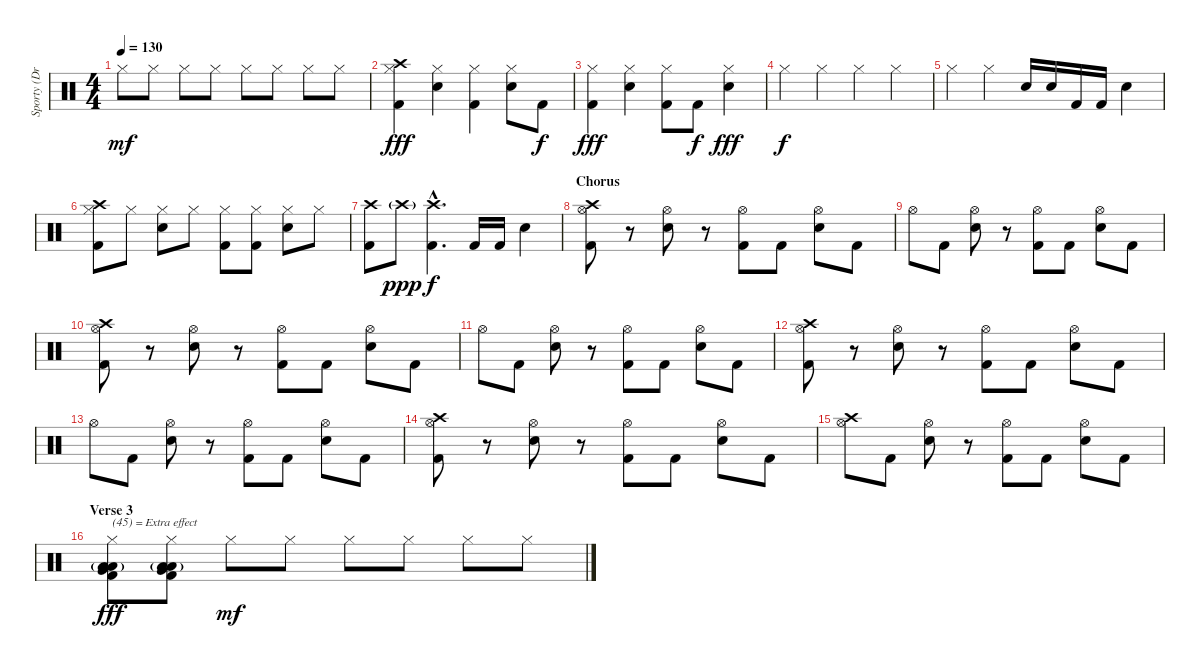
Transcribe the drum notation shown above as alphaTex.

\track ("Sporty (Drums)" "Sporty (Dr") {instrument percussion}
\staff {score}
\articulation defaults
\ts (4 4)
\tempo 130
\clef neutral
\ks c "Hi-Hat (closed)".8{dy mf} "Hi-Hat (closed)".8 "Hi-Hat (closed)".8 "Hi-Hat (closed)".8 "Hi-Hat (closed)".8 "Hi-Hat (closed)".8 "Hi-Hat (closed)".8 "Hi-Hat (closed)".8
|
("Crash high (hit)" "Hi-Hat (closed)" "Kick (hit) 2").4{dy fff} ("Hi-Hat (closed)" "Snare (hit) 2").4 ("Hi-Hat (closed)" "Kick (hit) 2").4 ("Hi-Hat (closed)" "Snare (hit) 2").8 "Kick (hit) 2".8{dy f} |
("Hi-Hat (closed)" "Kick (hit) 2").4{dy fff} ("Hi-Hat (closed)" "Snare (hit) 2").4 ("Hi-Hat (closed)" "Kick (hit) 2").8 "Kick (hit) 2".8{dy f} ("Hi-Hat (closed)" "Snare (hit) 2").4{dy fff} |
"Hi-Hat (closed)".4{dy f} "Hi-Hat (closed)".4 "Hi-Hat (closed)".4 "Hi-Hat (closed)".4 |
"Hi-Hat (closed)".4 "Hi-Hat (closed)".4 "Snare (hit) 2".16 "Snare (hit) 2".16 "Kick (hit) 2".16 "Kick (hit) 2".16 "Snare (hit) 2".4 |
("Crash high (hit)" "Hi-Hat (closed)" "Kick (hit) 2").8 "Hi-Hat (closed)".8 ("Hi-Hat (closed)" "Snare (hit) 2").8 "Hi-Hat (closed)".8 ("Hi-Hat (closed)" "Kick (hit) 2").8 ("Hi-Hat (closed)" "Kick (hit) 2").8 ("Hi-Hat (closed)" "Snare (hit) 2").8 "Hi-Hat (closed)".8 |
("Crash high (hit)" "Kick (hit) 2").8 "Crash high (hit)"{g}.8{dy ppp} ("Crash high (hit)"{hac} "Kick (hit) 2"{hac}).4{d dy f} "Kick (hit) 2".16 "Kick (hit) 2".16 "Snare (hit) 2".4 |
\section ("" "Chorus")
("Crash high (hit)" "Hi-Hat (open)" "Kick (hit) 2").8 r.8 ("Hi-Hat (open)" "Snare (hit) 2").8 r.8 ("Hi-Hat (open)" "Kick (hit) 2").8 "Kick (hit) 2".8 ("Hi-Hat (open)" "Snare (hit) 2").8 "Kick (hit) 2".8 |
"Hi-Hat (open)".8 "Kick (hit) 2".8 ("Hi-Hat (open)" "Snare (hit) 2").8 r.8 ("Hi-Hat (open)" "Kick (hit) 2").8 "Kick (hit) 2".8 ("Hi-Hat (open)" "Snare (hit) 2").8 "Kick (hit) 2".8 |
("Crash high (hit)" "Hi-Hat (open)" "Kick (hit) 2").8 r.8 ("Hi-Hat (open)" "Snare (hit) 2").8 r.8 ("Hi-Hat (open)" "Kick (hit) 2").8 "Kick (hit) 2".8 ("Hi-Hat (open)" "Snare (hit) 2").8 "Kick (hit) 2".8 |
"Hi-Hat (open)".8 "Kick (hit) 2".8 ("Hi-Hat (open)" "Snare (hit) 2").8 r.8 ("Hi-Hat (open)" "Kick (hit) 2").8 "Kick (hit) 2".8 ("Hi-Hat (open)" "Snare (hit) 2").8 "Kick (hit) 2".8 |
("Crash high (hit)" "Hi-Hat (open)" "Kick (hit) 2").8 r.8 ("Hi-Hat (open)" "Snare (hit) 2").8 r.8 ("Hi-Hat (open)" "Kick (hit) 2").8 "Kick (hit) 2".8 ("Hi-Hat (open)" "Snare (hit) 2").8 "Kick (hit) 2".8 |
"Hi-Hat (open)".8 "Kick (hit) 2".8 ("Hi-Hat (open)" "Snare (hit) 2").8 r.8 ("Hi-Hat (open)" "Kick (hit) 2").8 "Kick (hit) 2".8 ("Hi-Hat (open)" "Snare (hit) 2").8 "Kick (hit) 2".8 |
("Crash high (hit)" "Hi-Hat (open)" "Kick (hit) 2").8 r.8 ("Hi-Hat (open)" "Snare (hit) 2").8 r.8 ("Hi-Hat (open)" "Kick (hit) 2").8 "Kick (hit) 2".8 ("Hi-Hat (open)" "Snare (hit) 2").8 "Kick (hit) 2".8 |
("Crash high (hit)" "Hi-Hat (open)").8 "Kick (hit) 2".8 ("Hi-Hat (open)" "Snare (hit) 2").8 r.8 ("Hi-Hat (open)" "Kick (hit) 2").8 "Kick (hit) 2".8 ("Hi-Hat (open)" "Snare (hit) 2").8 "Kick (hit) 2".8 |
\section ("" "Verse 3")
("Hi-Hat (closed)" "Low Floor Tom (hit)" "Kick (hit) 2" "Very Low Tom (hit)" "Low Tom (hit)"{g}).8{txt "(45) = Extra effect" dy fff} ("Hi-Hat (closed)" "Low Floor Tom (hit)" "Kick (hit) 2" "Very Low Tom (hit)" "Low Tom (hit)"{g}).8 "Hi-Hat (closed)".8{dy mf} "Hi-Hat (closed)".8 "Hi-Hat (closed)".8 "Hi-Hat (closed)".8 "Hi-Hat (closed)".8 "Hi-Hat (closed)".8
